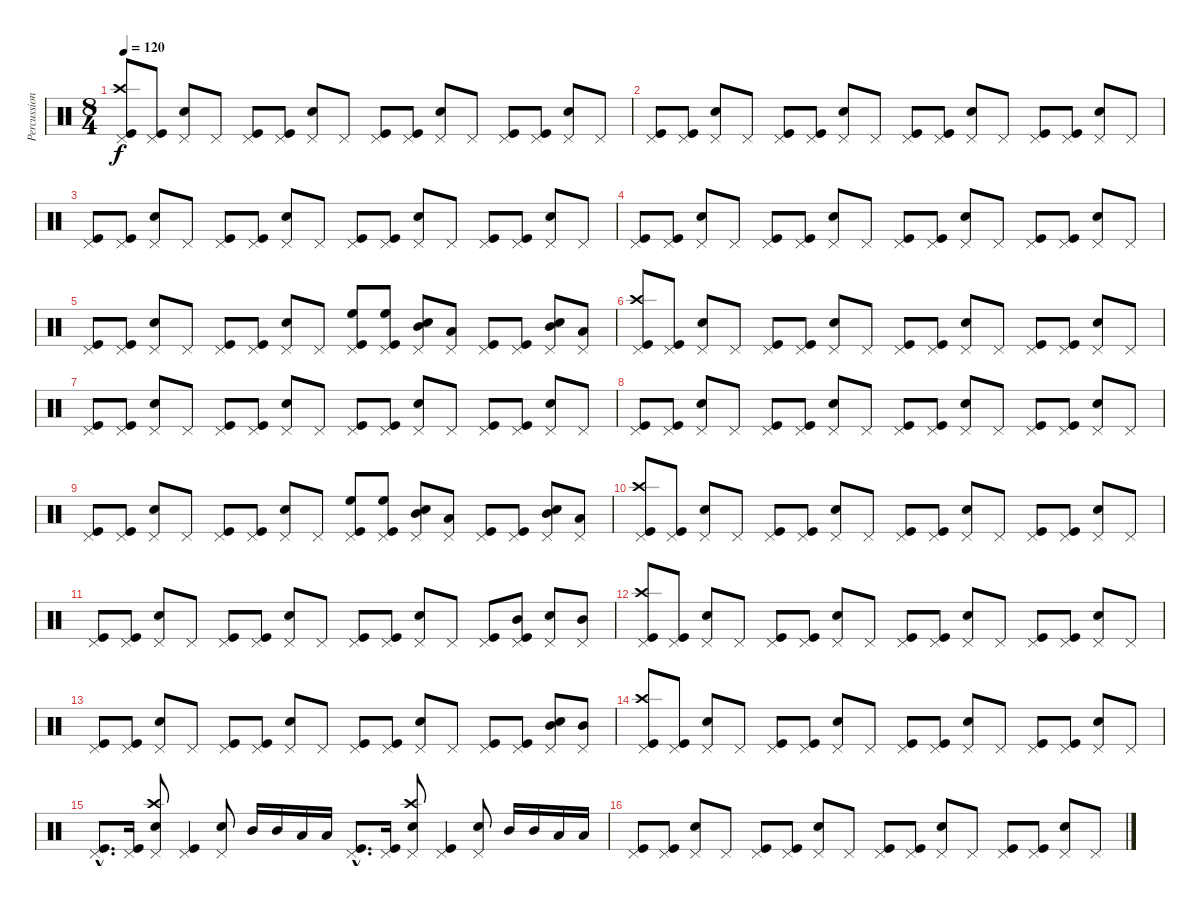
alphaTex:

\track ("Percussion" "Percussion") {instrument percussion}
\staff {score}
\articulation defaults
\ts (8 4)
\tempo 120
\clef neutral
\ks c
("Pedal Hi-Hat (hit)" "Crash high (hit)" "Kick (hit)").8{dy f} ("Pedal Hi-Hat (hit)" "Kick (hit)").8 ("Pedal Hi-Hat (hit)" "Electric Snare (hit)").8 "Pedal Hi-Hat (hit)".8 ("Pedal Hi-Hat (hit)" "Kick (hit)").8 ("Pedal Hi-Hat (hit)" "Kick (hit)").8 ("Pedal Hi-Hat (hit)" "Electric Snare (hit)").8 "Pedal Hi-Hat (hit)".8 ("Pedal Hi-Hat (hit)" "Kick (hit)").8 ("Pedal Hi-Hat (hit)" "Kick (hit)").8 ("Pedal Hi-Hat (hit)" "Electric Snare (hit)").8 "Pedal Hi-Hat (hit)".8 ("Pedal Hi-Hat (hit)" "Kick (hit)").8 ("Pedal Hi-Hat (hit)" "Kick (hit)").8 ("Pedal Hi-Hat (hit)" "Electric Snare (hit)").8 "Pedal Hi-Hat (hit)".8 |
("Pedal Hi-Hat (hit)" "Kick (hit)").8 ("Kick (hit)" "Pedal Hi-Hat (hit)").8 ("Pedal Hi-Hat (hit)" "Electric Snare (hit)").8 "Pedal Hi-Hat (hit)".8 ("Pedal Hi-Hat (hit)" "Kick (hit)").8 ("Pedal Hi-Hat (hit)" "Kick (hit)").8 ("Pedal Hi-Hat (hit)" "Electric Snare (hit)").8 "Pedal Hi-Hat (hit)".8 ("Pedal Hi-Hat (hit)" "Kick (hit)").8 ("Pedal Hi-Hat (hit)" "Kick (hit)").8 ("Pedal Hi-Hat (hit)" "Electric Snare (hit)").8 "Pedal Hi-Hat (hit)".8 ("Pedal Hi-Hat (hit)" "Kick (hit)").8 ("Pedal Hi-Hat (hit)" "Kick (hit)").8 ("Pedal Hi-Hat (hit)" "Electric Snare (hit)").8 "Pedal Hi-Hat (hit)".8 |
("Pedal Hi-Hat (hit)" "Kick (hit)").8 ("Pedal Hi-Hat (hit)" "Kick (hit)").8 ("Pedal Hi-Hat (hit)" "Electric Snare (hit)").8 "Pedal Hi-Hat (hit)".8 ("Pedal Hi-Hat (hit)" "Kick (hit)").8 ("Pedal Hi-Hat (hit)" "Kick (hit)").8 ("Pedal Hi-Hat (hit)" "Electric Snare (hit)").8 "Pedal Hi-Hat (hit)".8 ("Pedal Hi-Hat (hit)" "Kick (hit)").8 ("Pedal Hi-Hat (hit)" "Kick (hit)").8 ("Pedal Hi-Hat (hit)" "Electric Snare (hit)").8 "Pedal Hi-Hat (hit)".8 ("Pedal Hi-Hat (hit)" "Kick (hit)").8 ("Pedal Hi-Hat (hit)" "Kick (hit)").8 ("Pedal Hi-Hat (hit)" "Electric Snare (hit)").8 "Pedal Hi-Hat (hit)".8 |
("Pedal Hi-Hat (hit)" "Kick (hit)").8 ("Pedal Hi-Hat (hit)" "Kick (hit)").8 ("Pedal Hi-Hat (hit)" "Electric Snare (hit)").8 "Pedal Hi-Hat (hit)".8 ("Pedal Hi-Hat (hit)" "Kick (hit)").8 ("Pedal Hi-Hat (hit)" "Kick (hit)").8 ("Pedal Hi-Hat (hit)" "Electric Snare (hit)").8 "Pedal Hi-Hat (hit)".8 ("Pedal Hi-Hat (hit)" "Kick (hit)").8 ("Pedal Hi-Hat (hit)" "Kick (hit)").8 ("Pedal Hi-Hat (hit)" "Electric Snare (hit)").8 "Pedal Hi-Hat (hit)".8 ("Pedal Hi-Hat (hit)" "Kick (hit)").8 ("Pedal Hi-Hat (hit)" "Kick (hit)").8 ("Pedal Hi-Hat (hit)" "Electric Snare (hit)").8 "Pedal Hi-Hat (hit)".8 |
("Pedal Hi-Hat (hit)" "Kick (hit)").8 ("Pedal Hi-Hat (hit)" "Kick (hit)").8 ("Pedal Hi-Hat (hit)" "Electric Snare (hit)").8 "Pedal Hi-Hat (hit)".8 ("Pedal Hi-Hat (hit)" "Kick (hit)").8 ("Pedal Hi-Hat (hit)" "Kick (hit)").8 ("Pedal Hi-Hat (hit)" "Electric Snare (hit)").8 "Pedal Hi-Hat (hit)".8 ("Pedal Hi-Hat (hit)" "High Floor Tom (hit)" "Kick (hit)").8 ("Pedal Hi-Hat (hit)" "High Floor Tom (hit)" "Kick (hit)").8 ("Pedal Hi-Hat (hit)" "Electric Snare (hit)" "Mid Tom (hit)").8 ("Pedal Hi-Hat (hit)" "Low Tom (hit)").8 ("Pedal Hi-Hat (hit)" "Kick (hit)").8 ("Pedal Hi-Hat (hit)" "Kick (hit)").8 ("Pedal Hi-Hat (hit)" "Mid Tom (hit)" "Electric Snare (hit)").8 ("Pedal Hi-Hat (hit)" "Low Tom (hit)").8 |
("Pedal Hi-Hat (hit)" "Kick (hit)" "Crash high (hit)").8 ("Pedal Hi-Hat (hit)" "Kick (hit)").8 ("Pedal Hi-Hat (hit)" "Electric Snare (hit)").8 "Pedal Hi-Hat (hit)".8 ("Pedal Hi-Hat (hit)" "Kick (hit)").8 ("Pedal Hi-Hat (hit)" "Kick (hit)").8 ("Pedal Hi-Hat (hit)" "Electric Snare (hit)").8 "Pedal Hi-Hat (hit)".8 ("Pedal Hi-Hat (hit)" "Kick (hit)").8 ("Pedal Hi-Hat (hit)" "Kick (hit)").8 ("Pedal Hi-Hat (hit)" "Electric Snare (hit)").8 "Pedal Hi-Hat (hit)".8 ("Pedal Hi-Hat (hit)" "Kick (hit)").8 ("Pedal Hi-Hat (hit)" "Kick (hit)").8 ("Pedal Hi-Hat (hit)" "Electric Snare (hit)").8 "Pedal Hi-Hat (hit)".8 |
("Pedal Hi-Hat (hit)" "Kick (hit)").8 ("Pedal Hi-Hat (hit)" "Kick (hit)").8 ("Pedal Hi-Hat (hit)" "Electric Snare (hit)").8 "Pedal Hi-Hat (hit)".8 ("Pedal Hi-Hat (hit)" "Kick (hit)").8 ("Pedal Hi-Hat (hit)" "Kick (hit)").8 ("Pedal Hi-Hat (hit)" "Electric Snare (hit)").8 "Pedal Hi-Hat (hit)".8 ("Pedal Hi-Hat (hit)" "Kick (hit)").8 ("Pedal Hi-Hat (hit)" "Kick (hit)").8 ("Pedal Hi-Hat (hit)" "Electric Snare (hit)").8 "Pedal Hi-Hat (hit)".8 ("Pedal Hi-Hat (hit)" "Kick (hit)").8 ("Pedal Hi-Hat (hit)" "Kick (hit)").8 ("Pedal Hi-Hat (hit)" "Electric Snare (hit)").8 "Pedal Hi-Hat (hit)".8 |
("Pedal Hi-Hat (hit)" "Kick (hit)").8 ("Pedal Hi-Hat (hit)" "Kick (hit)").8 ("Pedal Hi-Hat (hit)" "Electric Snare (hit)").8 "Pedal Hi-Hat (hit)".8 ("Pedal Hi-Hat (hit)" "Kick (hit)").8 ("Pedal Hi-Hat (hit)" "Kick (hit)").8 ("Pedal Hi-Hat (hit)" "Electric Snare (hit)").8 "Pedal Hi-Hat (hit)".8 ("Pedal Hi-Hat (hit)" "Kick (hit)").8 ("Pedal Hi-Hat (hit)" "Kick (hit)").8 ("Pedal Hi-Hat (hit)" "Electric Snare (hit)").8 "Pedal Hi-Hat (hit)".8 ("Pedal Hi-Hat (hit)" "Kick (hit)").8 ("Pedal Hi-Hat (hit)" "Kick (hit)").8 ("Pedal Hi-Hat (hit)" "Electric Snare (hit)").8 "Pedal Hi-Hat (hit)".8 |
("Pedal Hi-Hat (hit)" "Kick (hit)").8 ("Pedal Hi-Hat (hit)" "Kick (hit)").8 ("Pedal Hi-Hat (hit)" "Electric Snare (hit)").8 "Pedal Hi-Hat (hit)".8 ("Pedal Hi-Hat (hit)" "Kick (hit)").8 ("Pedal Hi-Hat (hit)" "Kick (hit)").8 ("Pedal Hi-Hat (hit)" "Electric Snare (hit)").8 "Pedal Hi-Hat (hit)".8 ("Pedal Hi-Hat (hit)" "High Floor Tom (hit)" "Kick (hit)").8 ("Pedal Hi-Hat (hit)" "High Floor Tom (hit)" "Kick (hit)").8 ("Pedal Hi-Hat (hit)" "Electric Snare (hit)" "Mid Tom (hit)").8 ("Pedal Hi-Hat (hit)" "Low Tom (hit)").8 ("Pedal Hi-Hat (hit)" "Kick (hit)").8 ("Pedal Hi-Hat (hit)" "Kick (hit)").8 ("Pedal Hi-Hat (hit)" "Mid Tom (hit)" "Electric Snare (hit)").8 ("Pedal Hi-Hat (hit)" "Low Tom (hit)").8 |
("Pedal Hi-Hat (hit)" "Crash high (hit)" "Kick (hit)").8 ("Pedal Hi-Hat (hit)" "Kick (hit)").8 ("Pedal Hi-Hat (hit)" "Electric Snare (hit)").8 "Pedal Hi-Hat (hit)".8 ("Pedal Hi-Hat (hit)" "Kick (hit)").8 ("Pedal Hi-Hat (hit)" "Kick (hit)").8 ("Pedal Hi-Hat (hit)" "Electric Snare (hit)").8 "Pedal Hi-Hat (hit)".8 ("Pedal Hi-Hat (hit)" "Kick (hit)").8 ("Pedal Hi-Hat (hit)" "Kick (hit)").8 ("Pedal Hi-Hat (hit)" "Electric Snare (hit)").8 "Pedal Hi-Hat (hit)".8 ("Pedal Hi-Hat (hit)" "Kick (hit)").8 ("Pedal Hi-Hat (hit)" "Kick (hit)").8 ("Pedal Hi-Hat (hit)" "Electric Snare (hit)").8 "Pedal Hi-Hat (hit)".8 |
("Pedal Hi-Hat (hit)" "Kick (hit)").8 ("Pedal Hi-Hat (hit)" "Kick (hit)").8 ("Pedal Hi-Hat (hit)" "Electric Snare (hit)").8 "Pedal Hi-Hat (hit)".8 ("Pedal Hi-Hat (hit)" "Kick (hit)").8 ("Pedal Hi-Hat (hit)" "Kick (hit)").8 ("Pedal Hi-Hat (hit)" "Electric Snare (hit)").8 "Pedal Hi-Hat (hit)".8 ("Pedal Hi-Hat (hit)" "Kick (hit)").8 ("Pedal Hi-Hat (hit)" "Kick (hit)").8 ("Pedal Hi-Hat (hit)" "Electric Snare (hit)").8 "Pedal Hi-Hat (hit)".8 ("Pedal Hi-Hat (hit)" "Kick (hit)").8 ("Pedal Hi-Hat (hit)" "Kick (hit)" "Mid Tom (hit)").8 ("Pedal Hi-Hat (hit)" "Electric Snare (hit)").8 ("Pedal Hi-Hat (hit)" "Mid Tom (hit)").8 |
("Pedal Hi-Hat (hit)" "Crash high (hit)" "Kick (hit)").8 ("Pedal Hi-Hat (hit)" "Kick (hit)").8 ("Pedal Hi-Hat (hit)" "Electric Snare (hit)").8 "Pedal Hi-Hat (hit)".8 ("Pedal Hi-Hat (hit)" "Kick (hit)").8 ("Pedal Hi-Hat (hit)" "Kick (hit)").8 ("Pedal Hi-Hat (hit)" "Electric Snare (hit)").8 "Pedal Hi-Hat (hit)".8 ("Pedal Hi-Hat (hit)" "Kick (hit)").8 ("Pedal Hi-Hat (hit)" "Kick (hit)").8 ("Pedal Hi-Hat (hit)" "Electric Snare (hit)").8 "Pedal Hi-Hat (hit)".8 ("Pedal Hi-Hat (hit)" "Kick (hit)").8 ("Pedal Hi-Hat (hit)" "Kick (hit)").8 ("Pedal Hi-Hat (hit)" "Electric Snare (hit)").8 "Pedal Hi-Hat (hit)".8 |
("Pedal Hi-Hat (hit)" "Kick (hit)").8 ("Pedal Hi-Hat (hit)" "Kick (hit)").8 ("Pedal Hi-Hat (hit)" "Electric Snare (hit)").8 "Pedal Hi-Hat (hit)".8 ("Pedal Hi-Hat (hit)" "Kick (hit)").8 ("Pedal Hi-Hat (hit)" "Kick (hit)").8 ("Pedal Hi-Hat (hit)" "Electric Snare (hit)").8 "Pedal Hi-Hat (hit)".8 ("Pedal Hi-Hat (hit)" "Kick (hit)").8 ("Pedal Hi-Hat (hit)" "Kick (hit)").8 ("Pedal Hi-Hat (hit)" "Electric Snare (hit)").8 "Pedal Hi-Hat (hit)".8 ("Pedal Hi-Hat (hit)" "Kick (hit)").8 ("Pedal Hi-Hat (hit)" "Kick (hit)").8 ("Mid Tom (hit)" "Pedal Hi-Hat (hit)" "Electric Snare (hit)").8 ("Mid Tom (hit)" "Pedal Hi-Hat (hit)").8 |
("Pedal Hi-Hat (hit)" "Crash high (hit)" "Kick (hit)").8 ("Pedal Hi-Hat (hit)" "Kick (hit)").8 ("Electric Snare (hit)" "Pedal Hi-Hat (hit)").8 "Pedal Hi-Hat (hit)".8 ("Pedal Hi-Hat (hit)" "Kick (hit)").8 ("Pedal Hi-Hat (hit)" "Kick (hit)").8 ("Electric Snare (hit)" "Pedal Hi-Hat (hit)").8 "Pedal Hi-Hat (hit)".8 ("Pedal Hi-Hat (hit)" "Kick (hit)").8 ("Pedal Hi-Hat (hit)" "Kick (hit)").8 ("Pedal Hi-Hat (hit)" "Electric Snare (hit)").8 "Pedal Hi-Hat (hit)".8 ("Pedal Hi-Hat (hit)" "Kick (hit)").8 ("Pedal Hi-Hat (hit)" "Kick (hit)").8 ("Pedal Hi-Hat (hit)" "Electric Snare (hit)").8 "Pedal Hi-Hat (hit)".8 |
("Pedal Hi-Hat (hit)"{hac} "Kick (hit)"{hac}).8{d} ("Kick (hit)" "Pedal Hi-Hat (hit)").16 ("Pedal Hi-Hat (hit)" "Crash high (hit)" "Electric Snare (hit)").8 ("Kick (hit)" "Pedal Hi-Hat (hit)").4 ("Pedal Hi-Hat (hit)" "Electric Snare (hit)").8 "Mid Tom (hit)".16 "Mid Tom (hit)".16 "Low Tom (hit)".16 "Low Tom (hit)".16 ("Pedal Hi-Hat (hit)"{hac} "Kick (hit)"{hac}).8{d} ("Pedal Hi-Hat (hit)" "Kick (hit)").16 ("Electric Snare (hit)" "Pedal Hi-Hat (hit)" "Crash high (hit)").8 ("Pedal Hi-Hat (hit)" "Kick (hit)").4 ("Electric Snare (hit)" "Pedal Hi-Hat (hit)").8 "Mid Tom (hit)".16 "Mid Tom (hit)".16 "Low Tom (hit)".16 "Low Tom (hit)".16 |
("Pedal Hi-Hat (hit)" "Kick (hit)").8 ("Pedal Hi-Hat (hit)" "Kick (hit)").8 ("Pedal Hi-Hat (hit)" "Electric Snare (hit)").8 "Pedal Hi-Hat (hit)".8 ("Pedal Hi-Hat (hit)" "Kick (hit)").8 ("Pedal Hi-Hat (hit)" "Kick (hit)").8 ("Pedal Hi-Hat (hit)" "Electric Snare (hit)").8 "Pedal Hi-Hat (hit)".8 ("Pedal Hi-Hat (hit)" "Kick (hit)").8 ("Pedal Hi-Hat (hit)" "Kick (hit)").8 ("Pedal Hi-Hat (hit)" "Electric Snare (hit)").8 "Pedal Hi-Hat (hit)".8 ("Pedal Hi-Hat (hit)" "Kick (hit)").8 ("Pedal Hi-Hat (hit)" "Kick (hit)").8 ("Pedal Hi-Hat (hit)" "Electric Snare (hit)").8 "Pedal Hi-Hat (hit)".8
